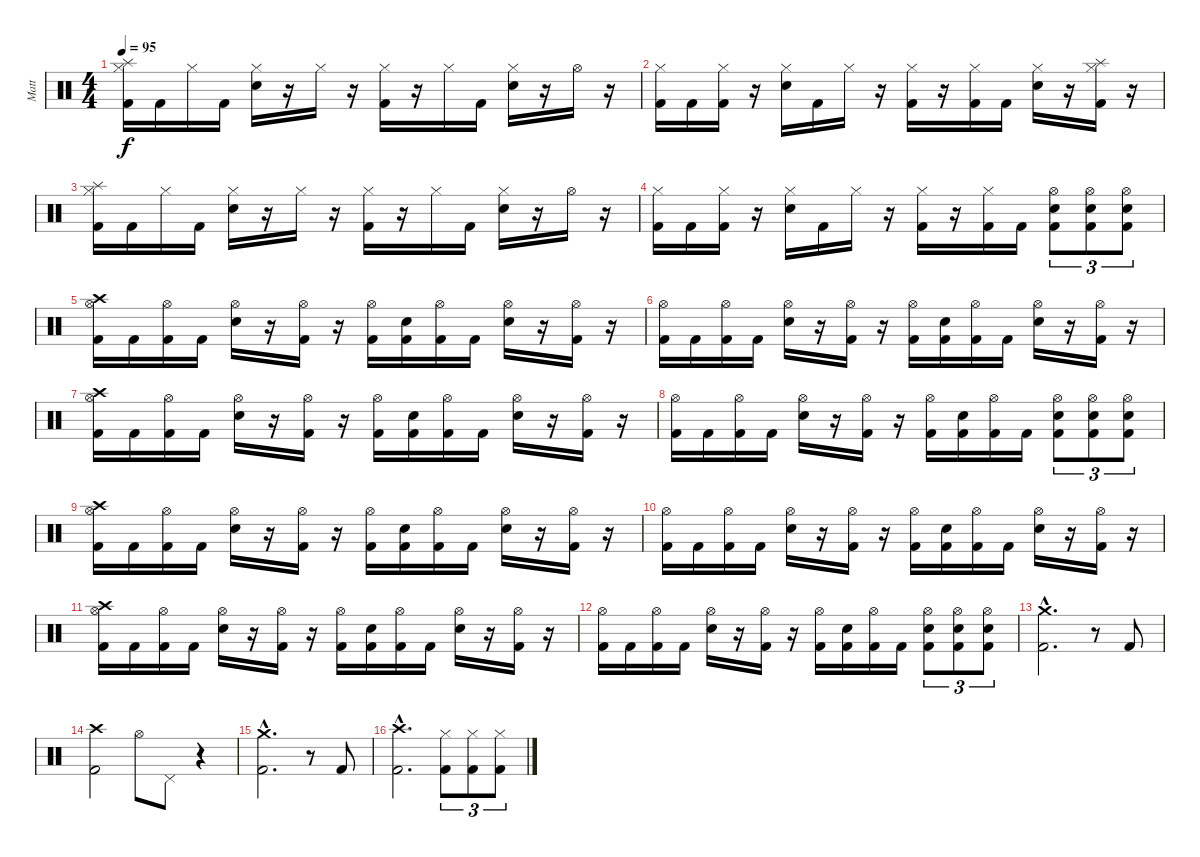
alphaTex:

\track ("Matt" "Matt") {instrument percussion}
\staff {score}
\articulation defaults
\ts (4 4)
\tempo 95
\clef neutral
\ks c
("Hi-Hat (closed)" "Splash (hit)" "Kick (hit) 2").16{dy f} "Kick (hit) 2".16 "Hi-Hat (closed)".16 "Kick (hit) 2".16 ("Hi-Hat (closed)" "Snare (hit) 2").16 r.16 "Hi-Hat (closed)".16 r.16 ("Hi-Hat (closed)" "Kick (hit) 2").16 r.16 "Hi-Hat (closed)".16 "Kick (hit) 2".16 ("Hi-Hat (closed)" "Snare (hit) 2").16 r.16 "Hi-Hat (open)".16 r.16 |
("Hi-Hat (closed)" "Kick (hit) 2").16 "Kick (hit) 2".16 ("Hi-Hat (closed)" "Kick (hit) 2").16 r.16 ("Hi-Hat (closed)" "Snare (hit) 2").16 "Kick (hit) 2".16 "Hi-Hat (closed)".16 r.16 ("Hi-Hat (closed)" "Kick (hit) 2").16 r.16 ("Hi-Hat (closed)" "Kick (hit) 2").16 "Kick (hit) 2".16 ("Hi-Hat (closed)" "Snare (hit) 2").16 r.16 ("Hi-Hat (closed)" "Kick (hit) 2" "Splash (hit)").16 r.16 |
("Hi-Hat (closed)" "Splash (hit)" "Kick (hit) 2").16 "Kick (hit) 2".16 "Hi-Hat (closed)".16 "Kick (hit) 2".16 ("Hi-Hat (closed)" "Snare (hit) 2").16 r.16 "Hi-Hat (closed)".16 r.16 ("Hi-Hat (closed)" "Kick (hit) 2").16 r.16 "Hi-Hat (closed)".16 "Kick (hit) 2".16 ("Hi-Hat (closed)" "Snare (hit) 2").16 r.16 "Hi-Hat (open)".16 r.16 |
("Hi-Hat (closed)" "Kick (hit) 2").16 "Kick (hit) 2".16 ("Hi-Hat (closed)" "Kick (hit) 2").16 r.16 ("Hi-Hat (closed)" "Snare (hit) 2").16 "Kick (hit) 2".16 "Hi-Hat (closed)".16 r.16 ("Hi-Hat (closed)" "Kick (hit) 2").16 r.16 ("Hi-Hat (closed)" "Kick (hit) 2").16 "Kick (hit) 2".16 ("Hi-Hat (open)" "Kick (hit) 2" "Snare (hit) 2").8{tu (3 2)} ("Hi-Hat (open)" "Kick (hit) 2" "Snare (hit) 2").8{tu (3 2)} ("Hi-Hat (open)" "Kick (hit) 2" "Snare (hit) 2").8{tu (3 2)} |
("Crash high (hit)" "Hi-Hat (open)" "Kick (hit) 2").16 "Kick (hit) 2".16 ("Hi-Hat (open)" "Kick (hit) 2").16 "Kick (hit) 2".16 ("Hi-Hat (open)" "Snare (hit) 2").16 r.16 ("Hi-Hat (open)" "Kick (hit) 2").16 r.16 ("Hi-Hat (open)" "Kick (hit) 2").16 ("Snare (hit) 2" "Kick (hit) 2").16 ("Hi-Hat (open)" "Kick (hit) 2").16 "Kick (hit) 2".16 ("Hi-Hat (open)" "Snare (hit) 2").16 r.16 ("Hi-Hat (open)" "Kick (hit) 2").16 r.16 |
("Hi-Hat (open)" "Kick (hit) 2").16 "Kick (hit) 2".16 ("Hi-Hat (open)" "Kick (hit) 2").16 "Kick (hit) 2".16 ("Hi-Hat (open)" "Snare (hit) 2").16 r.16 ("Hi-Hat (open)" "Kick (hit) 2").16 r.16 ("Hi-Hat (open)" "Kick (hit) 2").16 ("Snare (hit) 2" "Kick (hit) 2").16 ("Hi-Hat (open)" "Kick (hit) 2").16 "Kick (hit) 2".16 ("Hi-Hat (open)" "Snare (hit) 2").16 r.16 ("Hi-Hat (open)" "Kick (hit) 2").16 r.16 |
("Crash high (hit)" "Hi-Hat (open)" "Kick (hit) 2").16 "Kick (hit) 2".16 ("Hi-Hat (open)" "Kick (hit) 2").16 "Kick (hit) 2".16 ("Hi-Hat (open)" "Snare (hit) 2").16 r.16 ("Hi-Hat (open)" "Kick (hit) 2").16 r.16 ("Hi-Hat (open)" "Kick (hit) 2").16 ("Snare (hit) 2" "Kick (hit) 2").16 ("Hi-Hat (open)" "Kick (hit) 2").16 "Kick (hit) 2".16 ("Hi-Hat (open)" "Snare (hit) 2").16 r.16 ("Hi-Hat (open)" "Kick (hit) 2").16 r.16 |
("Hi-Hat (open)" "Kick (hit) 2").16 "Kick (hit) 2".16 ("Hi-Hat (open)" "Kick (hit) 2").16 "Kick (hit) 2".16 ("Hi-Hat (open)" "Snare (hit) 2").16 r.16 ("Hi-Hat (open)" "Kick (hit) 2").16 r.16 ("Hi-Hat (open)" "Kick (hit) 2").16 ("Snare (hit) 2" "Kick (hit) 2").16 ("Hi-Hat (open)" "Kick (hit) 2").16 "Kick (hit) 2".16 ("Hi-Hat (open)" "Kick (hit) 2" "Snare (hit) 2").8{tu (3 2)} ("Hi-Hat (open)" "Kick (hit) 2" "Snare (hit) 2").8{tu (3 2)} ("Hi-Hat (open)" "Kick (hit) 2" "Snare (hit) 2").8{tu (3 2)} |
("Crash high (hit)" "Hi-Hat (open)" "Kick (hit) 2").16 "Kick (hit) 2".16 ("Hi-Hat (open)" "Kick (hit) 2").16 "Kick (hit) 2".16 ("Hi-Hat (open)" "Snare (hit) 2").16 r.16 ("Hi-Hat (open)" "Kick (hit) 2").16 r.16 ("Hi-Hat (open)" "Kick (hit) 2").16 ("Snare (hit) 2" "Kick (hit) 2").16 ("Hi-Hat (open)" "Kick (hit) 2").16 "Kick (hit) 2".16 ("Hi-Hat (open)" "Snare (hit) 2").16 r.16 ("Hi-Hat (open)" "Kick (hit) 2").16 r.16 |
("Hi-Hat (open)" "Kick (hit) 2").16 "Kick (hit) 2".16 ("Hi-Hat (open)" "Kick (hit) 2").16 "Kick (hit) 2".16 ("Hi-Hat (open)" "Snare (hit) 2").16 r.16 ("Hi-Hat (open)" "Kick (hit) 2").16 r.16 ("Hi-Hat (open)" "Kick (hit) 2").16 ("Snare (hit) 2" "Kick (hit) 2").16 ("Hi-Hat (open)" "Kick (hit) 2").16 "Kick (hit) 2".16 ("Hi-Hat (open)" "Snare (hit) 2").16 r.16 ("Hi-Hat (open)" "Kick (hit) 2").16 r.16 |
("Crash high (hit)" "Hi-Hat (open)" "Kick (hit) 2").16 "Kick (hit) 2".16 ("Hi-Hat (open)" "Kick (hit) 2").16 "Kick (hit) 2".16 ("Hi-Hat (open)" "Snare (hit) 2").16 r.16 ("Hi-Hat (open)" "Kick (hit) 2").16 r.16 ("Hi-Hat (open)" "Kick (hit) 2").16 ("Snare (hit) 2" "Kick (hit) 2").16 ("Hi-Hat (open)" "Kick (hit) 2").16 "Kick (hit) 2".16 ("Hi-Hat (open)" "Snare (hit) 2").16 r.16 ("Hi-Hat (open)" "Kick (hit) 2").16 r.16 |
("Hi-Hat (open)" "Kick (hit) 2").16 "Kick (hit) 2".16 ("Hi-Hat (open)" "Kick (hit) 2").16 "Kick (hit) 2".16 ("Hi-Hat (open)" "Snare (hit) 2").16 r.16 ("Hi-Hat (open)" "Kick (hit) 2").16 r.16 ("Hi-Hat (open)" "Kick (hit) 2").16 ("Snare (hit) 2" "Kick (hit) 2").16 ("Hi-Hat (open)" "Kick (hit) 2").16 "Kick (hit) 2".16 ("Hi-Hat (open)" "Kick (hit) 2" "Snare (hit) 2").8{tu (3 2)} ("Hi-Hat (open)" "Kick (hit) 2" "Snare (hit) 2").8{tu (3 2)} ("Hi-Hat (open)" "Kick (hit) 2" "Snare (hit) 2").8{tu (3 2)} |
("Crash medium (hit)"{hac} "Kick (hit) 2"{hac}).2{d} r.8 "Kick (hit) 2".8 |
("Crash high (hit)" "Kick (hit) 2").2 "Hi-Hat (open)".8 "Pedal Hi-Hat (hit)".8 r.4 |
("Crash medium (hit)"{hac} "Kick (hit) 2"{hac}).2{d} r.8 "Kick (hit) 2".8 |
("Crash high (hit)"{hac} "Kick (hit) 2"{hac}).2{d} ("Hi-Hat (closed)" "Kick (hit) 2").8{tu (3 2)} ("Hi-Hat (closed)" "Kick (hit) 2").8{tu (3 2)} ("Hi-Hat (closed)" "Kick (hit) 2").8{tu (3 2)}
